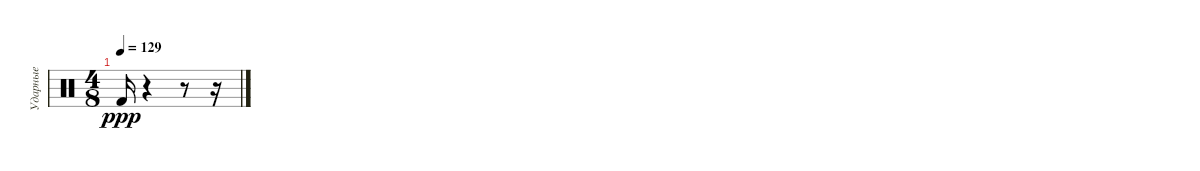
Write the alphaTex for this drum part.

\track ("Ударные" "Ударные") {instrument percussion}
\staff {score}
\articulation defaults
\ts (4 8)
\tempo 129
\clef neutral
\ks c "Kick (hit) 2".16{dy ppp}
r.4 r.8 r.16
